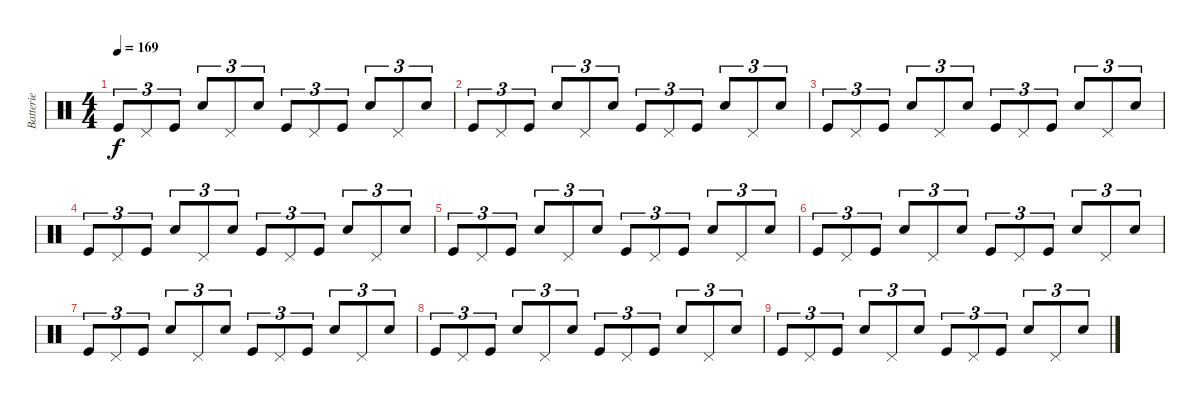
\track ("Batterie" "Batterie") {instrument percussion}
\staff {score}
\articulation defaults
\ts (4 4)
\tempo 169
\clef neutral
\ks c "Kick (hit)".8{tu (3 2) dy f} "Pedal Hi-Hat (hit)".8{tu (3 2)} "Kick (hit)".8{tu (3 2)} "Snare (hit) 2".8{tu (3 2)} "Pedal Hi-Hat (hit)".8{tu (3 2)} "Snare (hit) 2".8{tu (3 2)} "Kick (hit)".8{tu (3 2)} "Pedal Hi-Hat (hit)".8{tu (3 2)} "Kick (hit)".8{tu (3 2)} "Snare (hit) 2".8{tu (3 2)} "Pedal Hi-Hat (hit)".8{tu (3 2)} "Snare (hit) 2".8{tu (3 2)}
|
"Kick (hit)".8{tu (3 2)} "Pedal Hi-Hat (hit)".8{tu (3 2)} "Kick (hit)".8{tu (3 2)} "Snare (hit) 2".8{tu (3 2)} "Pedal Hi-Hat (hit)".8{tu (3 2)} "Snare (hit) 2".8{tu (3 2)} "Kick (hit)".8{tu (3 2)} "Pedal Hi-Hat (hit)".8{tu (3 2)} "Kick (hit)".8{tu (3 2)} "Snare (hit) 2".8{tu (3 2)} "Pedal Hi-Hat (hit)".8{tu (3 2)} "Snare (hit) 2".8{tu (3 2)} |
"Kick (hit)".8{tu (3 2)} "Pedal Hi-Hat (hit)".8{tu (3 2)} "Kick (hit)".8{tu (3 2)} "Snare (hit) 2".8{tu (3 2)} "Pedal Hi-Hat (hit)".8{tu (3 2)} "Snare (hit) 2".8{tu (3 2)} "Kick (hit)".8{tu (3 2)} "Pedal Hi-Hat (hit)".8{tu (3 2)} "Kick (hit)".8{tu (3 2)} "Snare (hit) 2".8{tu (3 2)} "Pedal Hi-Hat (hit)".8{tu (3 2)} "Snare (hit) 2".8{tu (3 2)} |
"Kick (hit)".8{tu (3 2)} "Pedal Hi-Hat (hit)".8{tu (3 2)} "Kick (hit)".8{tu (3 2)} "Snare (hit) 2".8{tu (3 2)} "Pedal Hi-Hat (hit)".8{tu (3 2)} "Snare (hit) 2".8{tu (3 2)} "Kick (hit)".8{tu (3 2)} "Pedal Hi-Hat (hit)".8{tu (3 2)} "Kick (hit)".8{tu (3 2)} "Snare (hit) 2".8{tu (3 2)} "Pedal Hi-Hat (hit)".8{tu (3 2)} "Snare (hit) 2".8{tu (3 2)} |
"Kick (hit)".8{tu (3 2)} "Pedal Hi-Hat (hit)".8{tu (3 2)} "Kick (hit)".8{tu (3 2)} "Snare (hit) 2".8{tu (3 2)} "Pedal Hi-Hat (hit)".8{tu (3 2)} "Snare (hit) 2".8{tu (3 2)} "Kick (hit)".8{tu (3 2)} "Pedal Hi-Hat (hit)".8{tu (3 2)} "Kick (hit)".8{tu (3 2)} "Snare (hit) 2".8{tu (3 2)} "Pedal Hi-Hat (hit)".8{tu (3 2)} "Snare (hit) 2".8{tu (3 2)} |
"Kick (hit)".8{tu (3 2)} "Pedal Hi-Hat (hit)".8{tu (3 2)} "Kick (hit)".8{tu (3 2)} "Snare (hit) 2".8{tu (3 2)} "Pedal Hi-Hat (hit)".8{tu (3 2)} "Snare (hit) 2".8{tu (3 2)} "Kick (hit)".8{tu (3 2)} "Pedal Hi-Hat (hit)".8{tu (3 2)} "Kick (hit)".8{tu (3 2)} "Snare (hit) 2".8{tu (3 2)} "Pedal Hi-Hat (hit)".8{tu (3 2)} "Snare (hit) 2".8{tu (3 2)} |
"Kick (hit)".8{tu (3 2)} "Pedal Hi-Hat (hit)".8{tu (3 2)} "Kick (hit)".8{tu (3 2)} "Snare (hit) 2".8{tu (3 2)} "Pedal Hi-Hat (hit)".8{tu (3 2)} "Snare (hit) 2".8{tu (3 2)} "Kick (hit)".8{tu (3 2)} "Pedal Hi-Hat (hit)".8{tu (3 2)} "Kick (hit)".8{tu (3 2)} "Snare (hit) 2".8{tu (3 2)} "Pedal Hi-Hat (hit)".8{tu (3 2)} "Snare (hit) 2".8{tu (3 2)} |
"Kick (hit)".8{tu (3 2)} "Pedal Hi-Hat (hit)".8{tu (3 2)} "Kick (hit)".8{tu (3 2)} "Snare (hit) 2".8{tu (3 2)} "Pedal Hi-Hat (hit)".8{tu (3 2)} "Snare (hit) 2".8{tu (3 2)} "Kick (hit)".8{tu (3 2)} "Pedal Hi-Hat (hit)".8{tu (3 2)} "Kick (hit)".8{tu (3 2)} "Snare (hit) 2".8{tu (3 2)} "Pedal Hi-Hat (hit)".8{tu (3 2)} "Snare (hit) 2".8{tu (3 2)} |
"Kick (hit)".8{tu (3 2)} "Pedal Hi-Hat (hit)".8{tu (3 2)} "Kick (hit)".8{tu (3 2)} "Snare (hit) 2".8{tu (3 2)} "Pedal Hi-Hat (hit)".8{tu (3 2)} "Snare (hit) 2".8{tu (3 2)} "Kick (hit)".8{tu (3 2)} "Pedal Hi-Hat (hit)".8{tu (3 2)} "Kick (hit)".8{tu (3 2)} "Snare (hit) 2".8{tu (3 2)} "Pedal Hi-Hat (hit)".8{tu (3 2)} "Snare (hit) 2".8{tu (3 2)}
